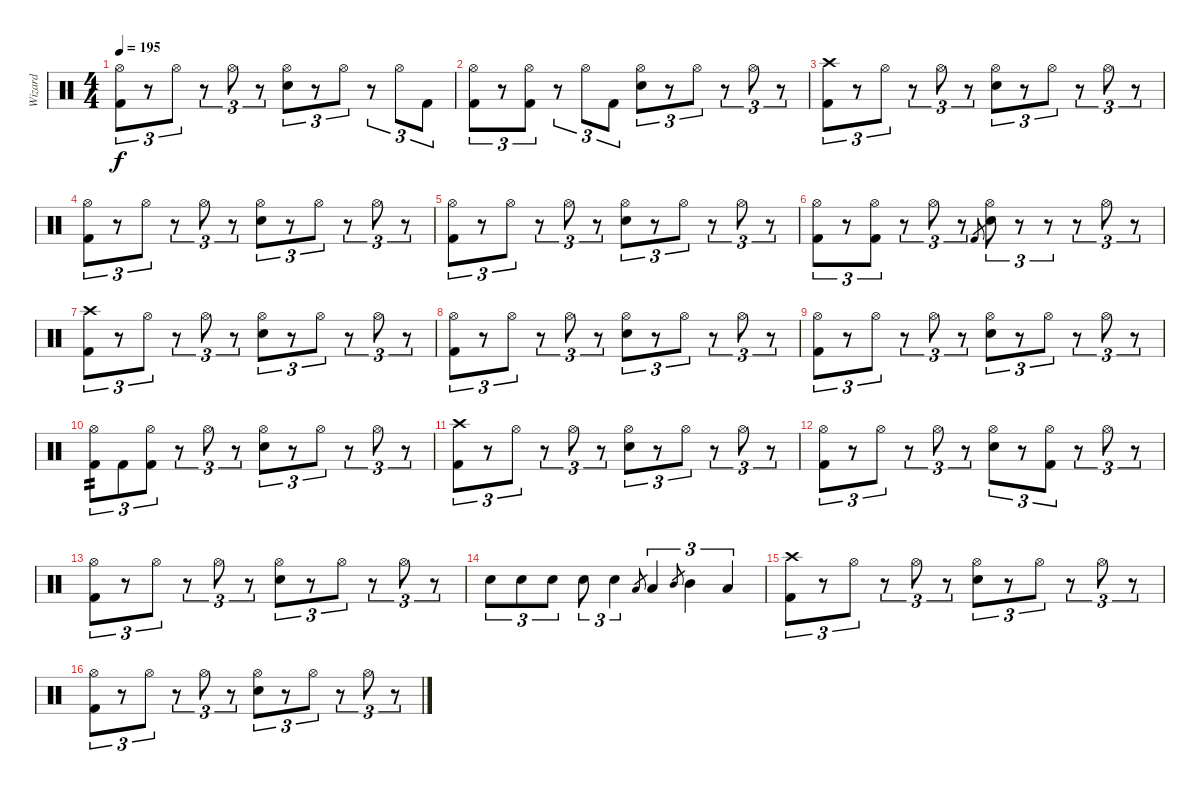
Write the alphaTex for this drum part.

\track ("Wizard" "Wizard") {instrument percussion}
\staff {score}
\articulation defaults
\ts (4 4)
\tempo 195
\clef neutral
\ks c
("Hi-Hat (open)" "Kick (hit) 2").8{tu (3 2) dy f} r.8{tu (3 2)} "Hi-Hat (open)".8{tu (3 2)} r.8{tu (3 2)} "Hi-Hat (open)".8{tu (3 2)} r.8{tu (3 2)} ("Hi-Hat (open)" "Snare (hit) 2").8{tu (3 2)} r.8{tu (3 2)} "Hi-Hat (open)".8{tu (3 2)} r.8{tu (3 2)} "Hi-Hat (open)".8{tu (3 2)} "Kick (hit) 2".8{tu (3 2)} |
("Hi-Hat (open)" "Kick (hit) 2").8{tu (3 2)} r.8{tu (3 2)} ("Hi-Hat (open)" "Kick (hit) 2").8{tu (3 2)} r.8{tu (3 2)} "Hi-Hat (open)".8{tu (3 2)} "Kick (hit) 2".8{tu (3 2)} ("Hi-Hat (open)" "Snare (hit) 2").8{tu (3 2)} r.8{tu (3 2)} "Hi-Hat (open)".8{tu (3 2)} r.8{tu (3 2)} "Hi-Hat (open)".8{tu (3 2)} r.8{tu (3 2)} |
("Crash high (hit)" "Kick (hit) 2").8{tu (3 2)} r.8{tu (3 2)} "Hi-Hat (open)".8{tu (3 2)} r.8{tu (3 2)} "Hi-Hat (open)".8{tu (3 2)} r.8{tu (3 2)} ("Hi-Hat (open)" "Snare (hit) 2").8{tu (3 2)} r.8{tu (3 2)} "Hi-Hat (open)".8{tu (3 2)} r.8{tu (3 2)} "Hi-Hat (open)".8{tu (3 2)} r.8{tu (3 2)} |
("Hi-Hat (open)" "Kick (hit) 2").8{tu (3 2)} r.8{tu (3 2)} "Hi-Hat (open)".8{tu (3 2)} r.8{tu (3 2)} "Hi-Hat (open)".8{tu (3 2)} r.8{tu (3 2)} ("Hi-Hat (open)" "Snare (hit) 2").8{tu (3 2)} r.8{tu (3 2)} "Hi-Hat (open)".8{tu (3 2)} r.8{tu (3 2)} "Hi-Hat (open)".8{tu (3 2)} r.8{tu (3 2)} |
("Hi-Hat (open)" "Kick (hit) 2").8{tu (3 2)} r.8{tu (3 2)} "Hi-Hat (open)".8{tu (3 2)} r.8{tu (3 2)} "Hi-Hat (open)".8{tu (3 2)} r.8{tu (3 2)} ("Hi-Hat (open)" "Snare (hit) 2").8{tu (3 2)} r.8{tu (3 2)} "Hi-Hat (open)".8{tu (3 2)} r.8{tu (3 2)} "Hi-Hat (open)".8{tu (3 2)} r.8{tu (3 2)} |
("Hi-Hat (open)" "Kick (hit) 2").8{tu (3 2)} r.8{tu (3 2)} ("Hi-Hat (open)" "Kick (hit) 2").8{tu (3 2)} r.8{tu (3 2)} "Hi-Hat (open)".8{tu (3 2)} r.8{tu (3 2)} "Kick (hit) 2".8{gr} ("Hi-Hat (open)" "Snare (hit) 2").8{tu (3 2)} r.8{tu (3 2)} r.8{tu (3 2)} r.8{tu (3 2)} "Hi-Hat (open)".8{tu (3 2)} r.8{tu (3 2)} |
("Crash high (hit)" "Kick (hit) 2").8{tu (3 2)} r.8{tu (3 2)} "Hi-Hat (open)".8{tu (3 2)} r.8{tu (3 2)} "Hi-Hat (open)".8{tu (3 2)} r.8{tu (3 2)} ("Hi-Hat (open)" "Snare (hit) 2").8{tu (3 2)} r.8{tu (3 2)} "Hi-Hat (open)".8{tu (3 2)} r.8{tu (3 2)} "Hi-Hat (open)".8{tu (3 2)} r.8{tu (3 2)} |
("Hi-Hat (open)" "Kick (hit) 2").8{tu (3 2)} r.8{tu (3 2)} "Hi-Hat (open)".8{tu (3 2)} r.8{tu (3 2)} "Hi-Hat (open)".8{tu (3 2)} r.8{tu (3 2)} ("Hi-Hat (open)" "Snare (hit) 2").8{tu (3 2)} r.8{tu (3 2)} "Hi-Hat (open)".8{tu (3 2)} r.8{tu (3 2)} "Hi-Hat (open)".8{tu (3 2)} r.8{tu (3 2)} |
("Hi-Hat (open)" "Kick (hit) 2").8{tu (3 2)} r.8{tu (3 2)} "Hi-Hat (open)".8{tu (3 2)} r.8{tu (3 2)} "Hi-Hat (open)".8{tu (3 2)} r.8{tu (3 2)} ("Hi-Hat (open)" "Snare (hit) 2").8{tu (3 2)} r.8{tu (3 2)} "Hi-Hat (open)".8{tu (3 2)} r.8{tu (3 2)} "Hi-Hat (open)".8{tu (3 2)} r.8{tu (3 2)} |
("Hi-Hat (open)" "Kick (hit) 2").8{tu (3 2) tp 2} "Kick (hit) 2".8{tu (3 2)} ("Hi-Hat (open)" "Kick (hit) 2").8{tu (3 2)} r.8{tu (3 2)} "Hi-Hat (open)".8{tu (3 2)} r.8{tu (3 2)} ("Hi-Hat (open)" "Snare (hit) 2").8{tu (3 2)} r.8{tu (3 2)} "Hi-Hat (open)".8{tu (3 2)} r.8{tu (3 2)} "Hi-Hat (open)".8{tu (3 2)} r.8{tu (3 2)} |
("Crash high (hit)" "Kick (hit) 2").8{tu (3 2)} r.8{tu (3 2)} "Hi-Hat (open)".8{tu (3 2)} r.8{tu (3 2)} "Hi-Hat (open)".8{tu (3 2)} r.8{tu (3 2)} ("Hi-Hat (open)" "Snare (hit) 2").8{tu (3 2)} r.8{tu (3 2)} "Hi-Hat (open)".8{tu (3 2)} r.8{tu (3 2)} "Hi-Hat (open)".8{tu (3 2)} r.8{tu (3 2)} |
("Hi-Hat (open)" "Kick (hit) 2").8{tu (3 2)} r.8{tu (3 2)} "Hi-Hat (open)".8{tu (3 2)} r.8{tu (3 2)} "Hi-Hat (open)".8{tu (3 2)} r.8{tu (3 2)} ("Hi-Hat (open)" "Snare (hit) 2").8{tu (3 2)} r.8{tu (3 2)} ("Hi-Hat (open)" "Kick (hit) 2").8{tu (3 2)} r.8{tu (3 2)} "Hi-Hat (open)".8{tu (3 2)} r.8{tu (3 2)} |
("Hi-Hat (open)" "Kick (hit) 2").8{tu (3 2)} r.8{tu (3 2)} "Hi-Hat (open)".8{tu (3 2)} r.8{tu (3 2)} "Hi-Hat (open)".8{tu (3 2)} r.8{tu (3 2)} ("Hi-Hat (open)" "Snare (hit) 2").8{tu (3 2)} r.8{tu (3 2)} "Hi-Hat (open)".8{tu (3 2)} r.8{tu (3 2)} "Hi-Hat (open)".8{tu (3 2)} r.8{tu (3 2)} |
"Snare (hit) 2".8{tu (3 2)} "Snare (hit) 2".8{tu (3 2)} "Snare (hit) 2".8{tu (3 2)} "Snare (hit) 2".8{tu (3 2)} "Snare (hit) 2".4{tu (3 2)} "Low Tom (hit)".8{gr} "Low Tom (hit)".4{tu (3 2)} "Mid Tom (hit)".8{gr} "Mid Tom (hit)".4{tu (3 2)} "Low Tom (hit)".4{tu (3 2)} |
("Crash high (hit)" "Kick (hit) 2").8{tu (3 2)} r.8{tu (3 2)} "Hi-Hat (open)".8{tu (3 2)} r.8{tu (3 2)} "Hi-Hat (open)".8{tu (3 2)} r.8{tu (3 2)} ("Hi-Hat (open)" "Snare (hit) 2").8{tu (3 2)} r.8{tu (3 2)} "Hi-Hat (open)".8{tu (3 2)} r.8{tu (3 2)} "Hi-Hat (open)".8{tu (3 2)} r.8{tu (3 2)} |
("Hi-Hat (open)" "Kick (hit) 2").8{tu (3 2)} r.8{tu (3 2)} "Hi-Hat (open)".8{tu (3 2)} r.8{tu (3 2)} "Hi-Hat (open)".8{tu (3 2)} r.8{tu (3 2)} ("Hi-Hat (open)" "Snare (hit) 2").8{tu (3 2)} r.8{tu (3 2)} "Hi-Hat (open)".8{tu (3 2)} r.8{tu (3 2)} "Hi-Hat (open)".8{tu (3 2)} r.8{tu (3 2)}
